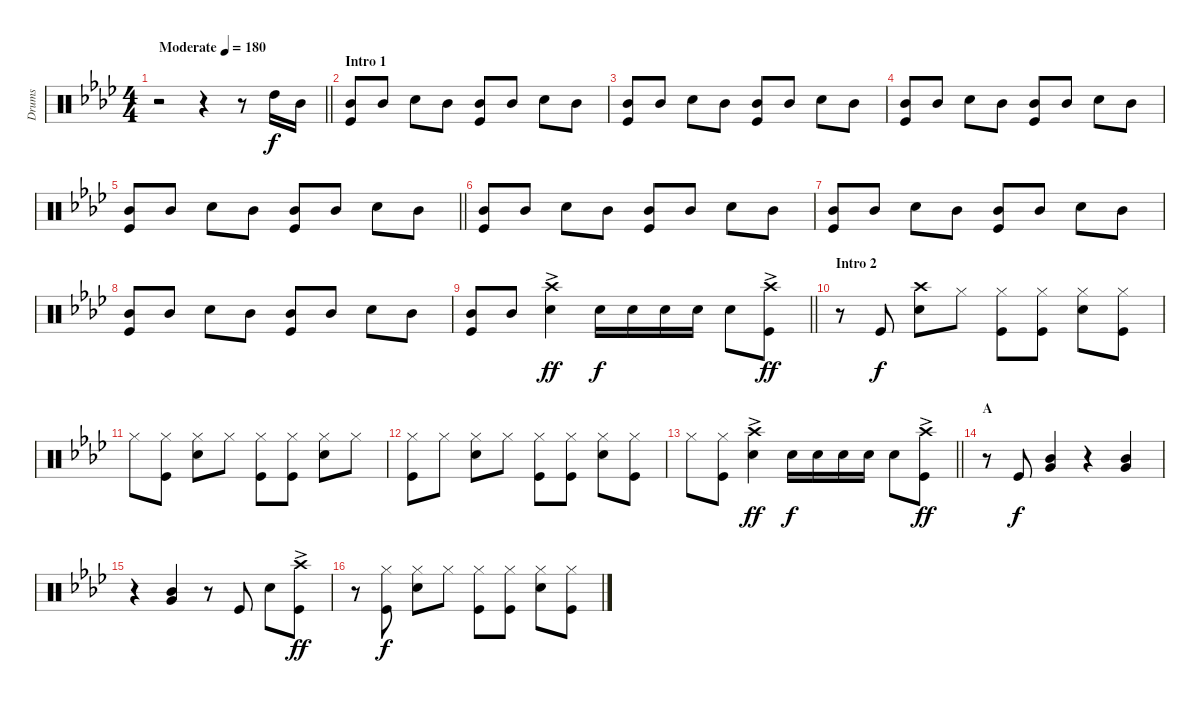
\track ("Drums" "Drums") {instrument percussion}
\staff {score}
\articulation defaults
\ts (4 4)
\tempo (180 "Moderate")
\clef neutral
\barLineRight lightlight
\ks ab
r.2{dy f} r.4 r.8 "High Tom (hit)".16 "Mid Tom (hit)".16 |
\section ("" "Intro 1")
("Mid Tom (hit)" "Kick (hit)").8 "Mid Tom (hit)".8 "Snare (hit) 2".8 "Mid Tom (hit)".8 ("Mid Tom (hit)" "Kick (hit)").8 "Mid Tom (hit)".8 "Snare (hit) 2".8 "Mid Tom (hit)".8 |
("Mid Tom (hit)" "Kick (hit)").8 "Mid Tom (hit)".8 "Snare (hit) 2".8 "Mid Tom (hit)".8 ("Mid Tom (hit)" "Kick (hit)").8 "Mid Tom (hit)".8 "Snare (hit) 2".8 "Mid Tom (hit)".8 |
("Mid Tom (hit)" "Kick (hit)").8 "Mid Tom (hit)".8 "Snare (hit) 2".8 "Mid Tom (hit)".8 ("Mid Tom (hit)" "Kick (hit)").8 "Mid Tom (hit)".8 "Snare (hit) 2".8 "Mid Tom (hit)".8 |
\barLineRight lightlight
("Mid Tom (hit)" "Kick (hit)").8 "Mid Tom (hit)".8 "Snare (hit) 2".8 "Mid Tom (hit)".8 ("Mid Tom (hit)" "Kick (hit)").8 "Mid Tom (hit)".8 "Snare (hit) 2".8 "Mid Tom (hit)".8 |
("Mid Tom (hit)" "Kick (hit)").8 "Mid Tom (hit)".8 "Snare (hit) 2".8 "Mid Tom (hit)".8 ("Mid Tom (hit)" "Kick (hit)").8 "Mid Tom (hit)".8 "Snare (hit) 2".8 "Mid Tom (hit)".8 |
("Mid Tom (hit)" "Kick (hit)").8 "Mid Tom (hit)".8 "Snare (hit) 2".8 "Mid Tom (hit)".8 ("Mid Tom (hit)" "Kick (hit)").8 "Mid Tom (hit)".8 "Snare (hit) 2".8 "Mid Tom (hit)".8 |
("Mid Tom (hit)" "Kick (hit)").8 "Mid Tom (hit)".8 "Snare (hit) 2".8 "Mid Tom (hit)".8 ("Mid Tom (hit)" "Kick (hit)").8 "Mid Tom (hit)".8 "Snare (hit) 2".8 "Mid Tom (hit)".8 |
\barLineRight lightlight
("Mid Tom (hit)" "Kick (hit)").8 "Mid Tom (hit)".8 ("Crash high (hit)"{ac} "Snare (hit) 2").4{dy ff} "Snare (hit) 2".16{dy f} "Snare (hit) 2".16 "Snare (hit) 2".16 "Snare (hit) 2".16 "Snare (hit) 2".8 ("Crash high (hit)"{ac} "Kick (hit)").8{dy ff} |
\section ("" "Intro 2")
r.8 "Kick (hit)".8{dy f} ("Crash high (hit)" "Snare (hit) 2").8 "Hi-Hat (closed)".8 ("Hi-Hat (closed)" "Kick (hit)").8 ("Hi-Hat (closed)" "Kick (hit)").8 ("Hi-Hat (closed)" "Snare (hit) 2").8 ("Hi-Hat (closed)" "Kick (hit)").8 |
"Hi-Hat (closed)".8 ("Hi-Hat (closed)" "Kick (hit)").8 ("Hi-Hat (closed)" "Snare (hit) 2").8 "Hi-Hat (closed)".8 ("Hi-Hat (closed)" "Kick (hit)").8 ("Hi-Hat (closed)" "Kick (hit)").8 ("Hi-Hat (closed)" "Snare (hit) 2").8 "Hi-Hat (closed)".8 |
("Hi-Hat (closed)" "Kick (hit)").8 "Hi-Hat (closed)".8 ("Hi-Hat (closed)" "Snare (hit) 2").8 "Hi-Hat (closed)".8 ("Hi-Hat (closed)" "Kick (hit)").8 ("Hi-Hat (closed)" "Kick (hit)").8 ("Hi-Hat (closed)" "Snare (hit) 2").8 ("Hi-Hat (closed)" "Kick (hit)").8 |
\barLineRight lightlight "Hi-Hat (closed)".8
("Hi-Hat (closed)" "Kick (hit)").8 ("Crash high (hit)"{ac} "Snare (hit) 2").4{dy ff} "Snare (hit) 2".16{dy f} "Snare (hit) 2".16 "Snare (hit) 2".16 "Snare (hit) 2".16 "Snare (hit) 2".8 ("Crash high (hit)"{ac} "Kick (hit)").8{dy ff} |
\section ("" "A")
r.8 "Kick (hit)".8{dy f} ("Very Low Tom (hit)" "Mid Tom (hit)").4 r.4 ("Very Low Tom (hit)" "Mid Tom (hit)").4 |
r.4 ("Very Low Tom (hit)" "Mid Tom (hit)").4 r.8 "Kick (hit)".8 "Snare (hit) 2".8 ("Crash high (hit)"{ac} "Kick (hit)").8{dy ff} |
r.8 ("Hi-Hat (closed)" "Kick (hit)").8{dy f} ("Hi-Hat (closed)" "Snare (hit) 2").8 "Hi-Hat (closed)".8 ("Hi-Hat (closed)" "Kick (hit)").8 ("Hi-Hat (closed)" "Kick (hit)").8 ("Hi-Hat (closed)" "Snare (hit) 2").8 ("Hi-Hat (closed)" "Kick (hit)").8
